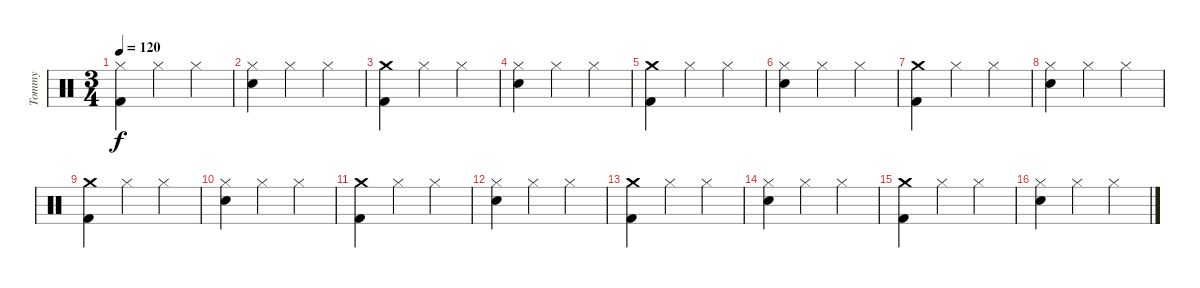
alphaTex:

\track ("Tommy" "Tommy") {instrument percussion}
\staff {score}
\articulation defaults
\ts (3 4)
\tempo 120
\clef neutral
\ks c
("Hi-Hat (closed)" "Kick (hit) 2").4{dy f} "Hi-Hat (closed)".4 "Hi-Hat (closed)".4 |
("Hi-Hat (closed)" "Electric Snare (hit)").4 "Hi-Hat (closed)".4 "Hi-Hat (closed)".4 |
("Crash medium (hit)" "Kick (hit) 2").4 "Hi-Hat (closed)".4 "Hi-Hat (closed)".4 |
("Hi-Hat (closed)" "Electric Snare (hit)").4 "Hi-Hat (closed)".4 "Hi-Hat (closed)".4 |
("Crash medium (hit)" "Kick (hit) 2").4 "Hi-Hat (closed)".4 "Hi-Hat (closed)".4 |
("Hi-Hat (closed)" "Electric Snare (hit)").4 "Hi-Hat (closed)".4 "Hi-Hat (closed)".4 |
("Crash medium (hit)" "Kick (hit) 2").4 "Hi-Hat (closed)".4 "Hi-Hat (closed)".4 |
("Hi-Hat (closed)" "Electric Snare (hit)").4 "Hi-Hat (closed)".4 "Hi-Hat (closed)".4 |
("Crash medium (hit)" "Kick (hit) 2").4 "Hi-Hat (closed)".4 "Hi-Hat (closed)".4 |
("Hi-Hat (closed)" "Electric Snare (hit)").4 "Hi-Hat (closed)".4 "Hi-Hat (closed)".4 |
("Crash medium (hit)" "Kick (hit) 2").4 "Hi-Hat (closed)".4 "Hi-Hat (closed)".4 |
("Hi-Hat (closed)" "Electric Snare (hit)").4 "Hi-Hat (closed)".4 "Hi-Hat (closed)".4 |
("Crash medium (hit)" "Kick (hit) 2").4 "Hi-Hat (closed)".4 "Hi-Hat (closed)".4 |
("Hi-Hat (closed)" "Electric Snare (hit)").4 "Hi-Hat (closed)".4 "Hi-Hat (closed)".4 |
("Crash medium (hit)" "Kick (hit) 2").4 "Hi-Hat (closed)".4 "Hi-Hat (closed)".4 |
("Hi-Hat (closed)" "Electric Snare (hit)").4 "Hi-Hat (closed)".4 "Hi-Hat (closed)".4
